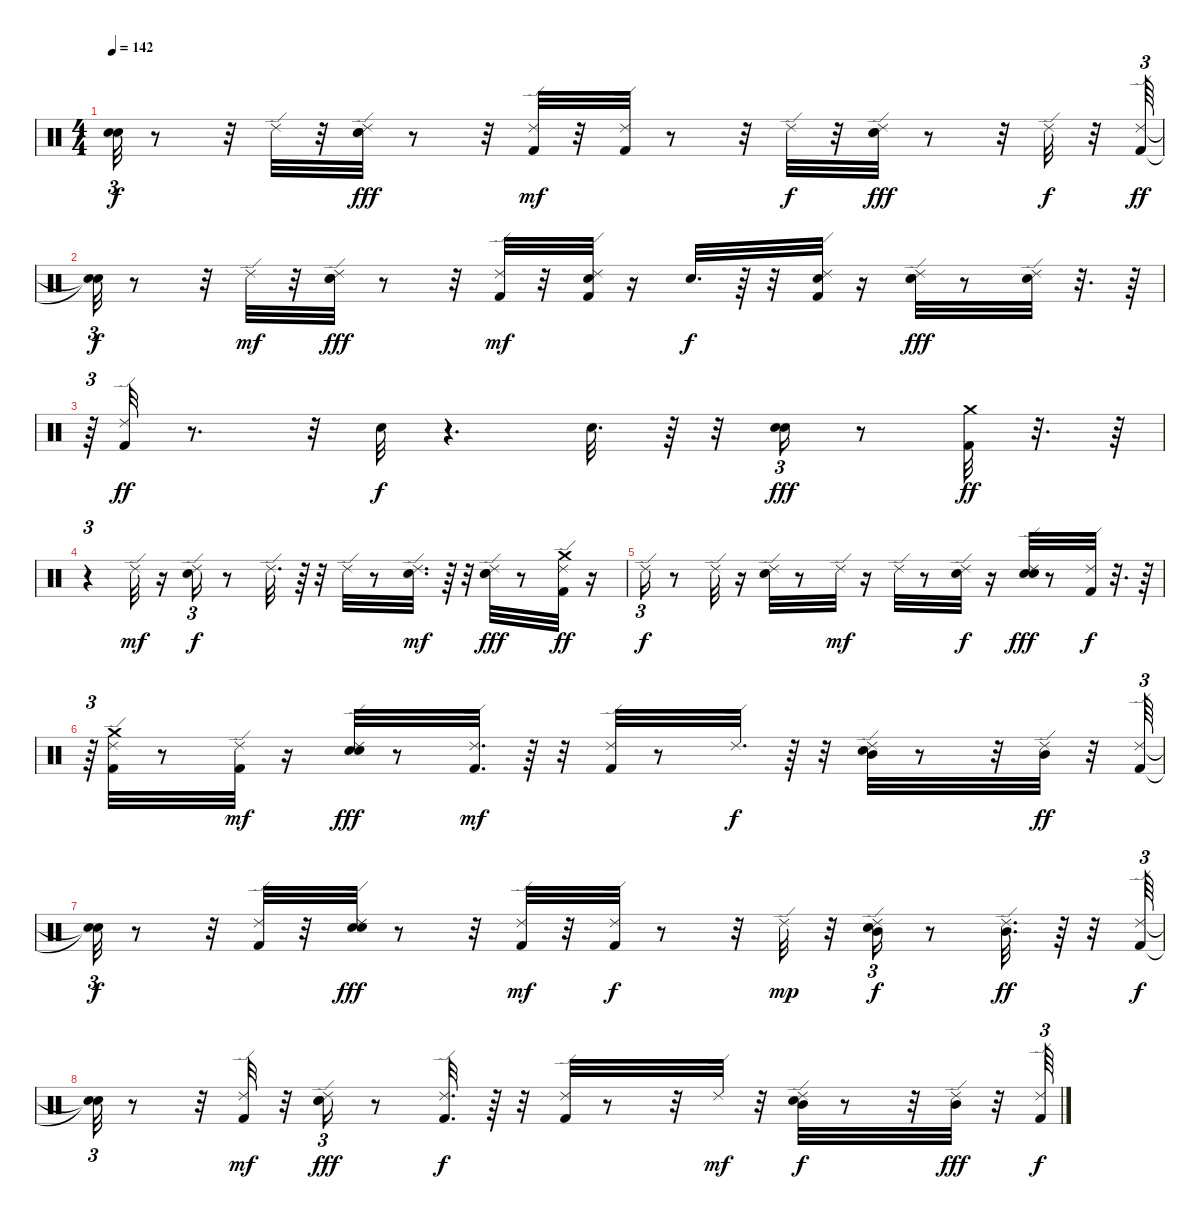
\track "" {instrument percussion}
\staff {score}
\articulation defaults
\ts (4 4)
\tempo 142
\clef neutral
\ks c
("Snare (hit)"{t} "Snare (hit)"{t}).32{tu (3 2) dy f} r.8 r.32 "Ride (edge) 2".32 r.32 ("Electric Snare (hit)" "Hand Clap (hit)" "Ride (edge) 2").32{dy fff} r.8 r.32 ("Kick (hit) 2" "Ride (edge) 2").32{dy mf} r.32 ("Kick (hit) 2" "Ride (edge) 2").32 r.8 r.32 "Ride (edge) 2".32{dy f} r.32 ("Electric Snare (hit)" "Hand Clap (hit)" "Ride (edge) 2").32{dy fff} r.8 r.32 "Ride (edge) 2".32{dy f} r.32 ("Kick (hit) 2" "Ride (edge) 2").64{tu (3 2) dy ff} |
("Snare (hit)"{t} "Snare (hit)"{t}).32{tu (3 2) dy f} r.8 r.32 "Ride (edge) 2".32{dy mf} r.32 ("Hand Clap (hit)" "Electric Snare (hit)" "Ride (edge) 2").32{dy fff} r.8 r.32 ("Kick (hit) 2" "Ride (edge) 2").32{dy mf} r.32 ("Electric Snare (hit)" "Kick (hit) 2" "Ride (edge) 2").32 r.16 "Electric Snare (hit)".32{d dy f} r.64 r.32 ("Electric Snare (hit)" "Ride (edge) 2" "Kick (hit) 2").32 r.16 ("Electric Snare (hit)" "Hand Clap (hit)" "Ride (edge) 2").32{dy fff} r.8 ("Electric Snare (hit)" "Ride (edge) 2").32 r.32{d} r.64 |
r.64{tu (3 2)} ("Ride (edge) 2" "Kick (hit) 2").32{dy ff} r.8{d} r.32 "Hand Clap (hit)".32{dy f} r.4{d} "Electric Snare (hit)".32{d} r.64 r.32 ("Electric Snare (hit)" "Hand Clap (hit)").16{tu (3 2) dy fff} r.8 ("Kick (hit) 2" "Crash medium (hit)").32{dy ff} r.32{d} r.64 |
r.4{tu (3 2)} "Ride (edge) 2".32{dy mf} r.16 ("Hand Clap (hit)" "Ride (edge) 2").16{tu (3 2) dy f} r.8 "Ride (edge) 2".32{d} r.64 r.32 "Ride (edge) 2".32 r.8 ("Electric Snare (hit)" "Ride (edge) 2").32{d dy mf} r.64 r.32 ("Hand Clap (hit)" "Electric Snare (hit)" "Ride (edge) 2").32{dy fff} r.8 ("Ride (edge) 2" "Crash medium (hit)" "Kick (hit) 2").32{dy ff} r.16 |
"Ride (edge) 2".16{tu (3 2) dy f} r.8 "Ride (edge) 2".32 r.16 ("Hand Clap (hit)" "Ride (edge) 2").32 r.8 "Ride (edge) 2".32{dy mf} r.16 "Ride (edge) 2".32 r.8 ("Electric Snare (hit)" "Ride (edge) 2").32{dy f} r.16 ("Electric Snare (hit)" "Hand Clap (hit)" "Ride (edge) 2").32{dy fff} r.8 ("Ride (edge) 2" "Kick (hit) 2").32{dy f} r.32{d} r.64 |
r.64{tu (3 2)} ("Crash medium (hit)" "Kick (hit) 2" "Ride (edge) 2").32 r.8 ("Kick (hit) 2" "Ride (edge) 2").32{dy mf} r.16 ("Hand Clap (hit)" "Electric Snare (hit)" "Ride (edge) 2").32{dy fff} r.8 ("Kick (hit) 2" "Ride (edge) 2").32{d dy mf} r.64 r.32 ("Kick (hit) 2" "Ride (edge) 2").32 r.8 "Ride (edge) 2".32{d dy f} r.64 r.32 ("Mid Tom (hit)" "Hand Clap (hit)" "Ride (edge) 2").32 r.8 r.32 ("Ride (edge) 2" "Mid Tom (hit)").32{dy ff} r.32 ("Ride (edge) 2" "Kick (hit) 2").64{tu (3 2)} |
("Snare (hit)"{t} "Snare (hit)"{t}).32{tu (3 2) dy f} r.8 r.32 ("Kick (hit) 2" "Ride (edge) 2").32 r.32 ("Electric Snare (hit)" "Hand Clap (hit)" "Ride (edge) 2").32{dy fff} r.8 r.32 ("Kick (hit) 2" "Ride (edge) 2").32{dy mf} r.32 ("Kick (hit) 2" "Ride (edge) 2").32{dy f} r.8 r.32 "Ride (edge) 2".32{dy mp} r.32 ("Mid Tom (hit)" "Hand Clap (hit)" "Ride (edge) 2").16{tu (3 2) dy f} r.8 ("Ride (edge) 2" "Mid Tom (hit)").32{d dy ff} r.64 r.32 ("Kick (hit) 2" "Ride (edge) 2").64{tu (3 2) dy f} |
("Snare (hit)"{t} "Snare (hit)"{t}).32{tu (3 2)} r.8 r.32 ("Kick (hit) 2" "Ride (edge) 2").32{dy mf} r.32 ("Electric Snare (hit)" "Hand Clap (hit)" "Ride (edge) 2").16{tu (3 2) dy fff} r.8 ("Kick (hit) 2" "Ride (edge) 2").32{d dy f} r.64 r.32 ("Kick (hit) 2" "Ride (edge) 2").32 r.8 r.32 "Ride (edge) 2".32{dy mf} r.32 ("Mid Tom (hit)" "Hand Clap (hit)" "Ride (edge) 2").32{dy f} r.8 r.32 ("Ride (edge) 2" "Mid Tom (hit)").32{dy fff} r.32 ("Kick (hit) 2" "Ride (edge) 2").64{tu (3 2) dy f}
